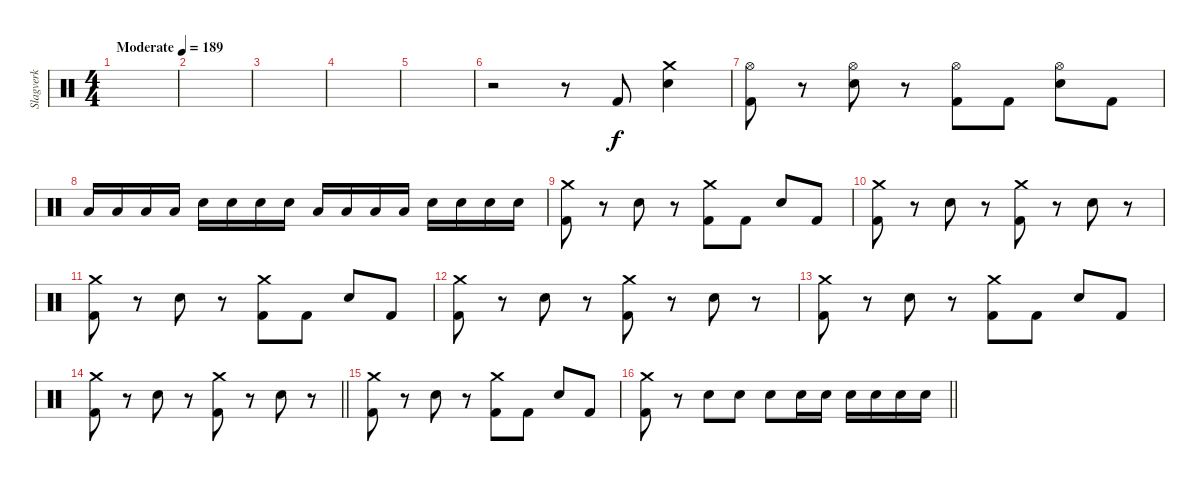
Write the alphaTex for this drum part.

\track ("Slagverk" "Slagverk") {instrument percussion}
\staff {score}
\articulation defaults
\ts (4 4)
\tempo (189 "Moderate")
\clef neutral
\ks c
|
|
|
|
|
r.2 r.8 "Kick (hit) 2".8 ("Snare (hit) 2" "Crash medium (hit)").4 |
("Hi-Hat (open)" "Kick (hit) 2").8 r.8 ("Hi-Hat (open)" "Snare (hit) 2").8 r.8 ("Hi-Hat (open)" "Kick (hit) 2").8 "Kick (hit) 2".8 ("Hi-Hat (open)" "Snare (hit) 2").8 "Kick (hit) 2".8 |
"Low Tom (hit)".16 "Low Tom (hit)".16 "Low Tom (hit)".16 "Low Tom (hit)".16 "Snare (hit) 2".16 "Snare (hit) 2".16 "Snare (hit) 2".16 "Snare (hit) 2".16 "Low Tom (hit)".16 "Low Tom (hit)".16 "Low Tom (hit)".16 "Low Tom (hit)".16 "Snare (hit) 2".16 "Snare (hit) 2".16 "Snare (hit) 2".16 "Snare (hit) 2".16 |
("Crash medium (hit)" "Kick (hit) 2").8 r.8 "Snare (hit) 2".8 r.8 ("Crash medium (hit)" "Kick (hit) 2").8 "Kick (hit) 2".8 "Snare (hit) 2".8 "Kick (hit) 2".8 |
("Crash medium (hit)" "Kick (hit) 2").8 r.8 "Snare (hit) 2".8 r.8 ("Crash medium (hit)" "Kick (hit) 2").8 r.8 "Snare (hit) 2".8 r.8 |
("Crash medium (hit)" "Kick (hit) 2").8 r.8 "Snare (hit) 2".8 r.8 ("Crash medium (hit)" "Kick (hit) 2").8 "Kick (hit) 2".8 "Snare (hit) 2".8 "Kick (hit) 2".8 |
("Crash medium (hit)" "Kick (hit) 2").8 r.8 "Snare (hit) 2".8 r.8 ("Crash medium (hit)" "Kick (hit) 2").8 r.8 "Snare (hit) 2".8 r.8 |
("Crash medium (hit)" "Kick (hit) 2").8 r.8 "Snare (hit) 2".8 r.8 ("Crash medium (hit)" "Kick (hit) 2").8 "Kick (hit) 2".8 "Snare (hit) 2".8 "Kick (hit) 2".8 |
\barLineRight lightlight
("Crash medium (hit)" "Kick (hit) 2").8 r.8 "Snare (hit) 2".8 r.8 ("Crash medium (hit)" "Kick (hit) 2").8 r.8 "Snare (hit) 2".8 r.8 |
\section ("" "")
("Crash medium (hit)" "Kick (hit) 2").8 r.8 "Snare (hit) 2".8 r.8 ("Crash medium (hit)" "Kick (hit) 2").8 "Kick (hit) 2".8 "Snare (hit) 2".8 "Kick (hit) 2".8 |
\barLineRight lightlight
("Crash medium (hit)" "Kick (hit) 2").8 r.8 "Snare (hit) 2".8 "Snare (hit) 2".8 "Snare (hit) 2".8 "Snare (hit) 2".16 "Snare (hit) 2".16 "Snare (hit) 2".16 "Snare (hit) 2".16 "Snare (hit) 2".16 "Snare (hit) 2".16
